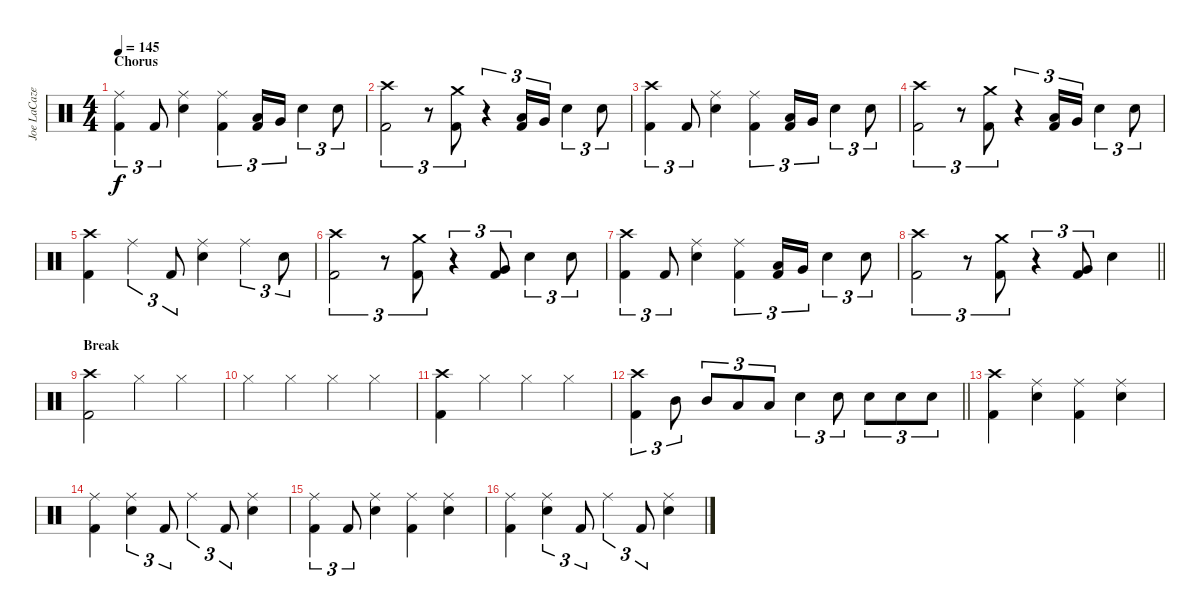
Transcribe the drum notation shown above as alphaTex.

\track ("Joe LaCaze" "Joe LaCaze") {instrument percussion}
\staff {score}
\articulation defaults
\ts (4 4)
\section ("" "Chorus")
\tempo 145
\clef neutral
\ks c
("Ride (middle)" "Kick (hit) 2").4{tu (3 2) dy f} "Kick (hit) 2".8{tu (3 2)} ("Ride (middle)" "Electric Snare (hit)").4 ("Ride (middle)" "Kick (hit) 2").4{tu (3 2)} ("Low Tom (hit)" "Kick (hit) 2").16{tu (3 2)} "Very Low Tom (hit)".16{tu (3 2)} "Electric Snare (hit)".4{tu (3 2)} "Electric Snare (hit)".8{tu (3 2)} |
("Crash high (hit)" "Kick (hit) 2").2{tu (3 2)} r.8{tu (3 2)} ("Crash medium (hit)" "Kick (hit) 2").8{tu (3 2)} r.4{tu (3 2)} ("Low Tom (hit)" "Kick (hit) 2").16{tu (3 2)} "Very Low Tom (hit)".16{tu (3 2)} "Electric Snare (hit)".4{tu (3 2)} "Electric Snare (hit)".8{tu (3 2)} |
("Crash high (hit)" "Kick (hit) 2").4{tu (3 2)} "Kick (hit) 2".8{tu (3 2)} ("Ride (middle)" "Electric Snare (hit)").4 ("Ride (middle)" "Kick (hit) 2").4{tu (3 2)} ("Low Tom (hit)" "Kick (hit) 2").16{tu (3 2)} "Very Low Tom (hit)".16{tu (3 2)} "Electric Snare (hit)".4{tu (3 2)} "Electric Snare (hit)".8{tu (3 2)} |
("Crash high (hit)" "Kick (hit) 2").2{tu (3 2)} r.8{tu (3 2)} ("Crash medium (hit)" "Kick (hit) 2").8{tu (3 2)} r.4{tu (3 2)} ("Low Tom (hit)" "Kick (hit) 2").16{tu (3 2)} "Very Low Tom (hit)".16{tu (3 2)} "Electric Snare (hit)".4{tu (3 2)} "Electric Snare (hit)".8{tu (3 2)} |
("Crash high (hit)" "Kick (hit) 2").4 "Ride (middle)".4{tu (3 2)} "Kick (hit) 2".8{tu (3 2)} ("Ride (middle)" "Electric Snare (hit)").4 "Ride (middle)".4{tu (3 2)} "Electric Snare (hit)".8{tu (3 2)} |
("Crash high (hit)" "Kick (hit) 2").2{tu (3 2)} r.8{tu (3 2)} ("Crash medium (hit)" "Kick (hit) 2").8{tu (3 2)} r.4{tu (3 2)} ("Very Low Tom (hit)" "Kick (hit) 2").8{tu (3 2)} "Electric Snare (hit)".4{tu (3 2)} "Electric Snare (hit)".8{tu (3 2)} |
("Crash high (hit)" "Kick (hit) 2").4{tu (3 2)} "Kick (hit) 2".8{tu (3 2)} ("Ride (middle)" "Electric Snare (hit)").4 ("Ride (middle)" "Kick (hit) 2").4{tu (3 2)} ("Low Tom (hit)" "Kick (hit) 2").16{tu (3 2)} "Very Low Tom (hit)".16{tu (3 2)} "Electric Snare (hit)".4{tu (3 2)} "Electric Snare (hit)".8{tu (3 2)} |
\barLineRight lightlight
("Crash high (hit)" "Kick (hit) 2").2{tu (3 2)} r.8{tu (3 2)} ("Crash medium (hit)" "Kick (hit) 2").8{tu (3 2)} r.4{tu (3 2)} ("Very Low Tom (hit)" "Kick (hit) 2").8{tu (3 2)} "Electric Snare (hit)".4 |
\section ("" "Break")
("Crash high (hit)" "Kick (hit) 2").2 "Hi-Hat (closed)".4 "Hi-Hat (closed)".4 |
"Hi-Hat (closed)".4 "Hi-Hat (closed)".4 "Hi-Hat (closed)".4 "Hi-Hat (closed)".4 |
("Crash high (hit)" "Kick (hit) 2").4 "Hi-Hat (closed)".4 "Hi-Hat (closed)".4 "Hi-Hat (closed)".4 |
\barLineRight lightlight
("Crash high (hit)" "Kick (hit) 2").4{tu (3 2)} "Mid Tom (hit)".8{tu (3 2)} "Mid Tom (hit)".8{tu (3 2)} "Low Tom (hit)".8{tu (3 2)} "Low Tom (hit)".8{tu (3 2)} "Electric Snare (hit)".4{tu (3 2)} "Electric Snare (hit)".8{tu (3 2)} "Electric Snare (hit)".8{tu (3 2)} "Electric Snare (hit)".8{tu (3 2)} "Electric Snare (hit)".8{tu (3 2)} |
\section ("" "")
("Crash high (hit)" "Kick (hit) 2").4 ("Ride (middle)" "Electric Snare (hit)").4 ("Ride (middle)" "Kick (hit) 2").4 ("Ride (middle)" "Electric Snare (hit)").4 |
("Ride (middle)" "Kick (hit) 2").4 ("Ride (middle)" "Electric Snare (hit)").4{tu (3 2)} "Kick (hit) 2".8{tu (3 2)} "Ride (middle)".4{tu (3 2)} "Kick (hit) 2".8{tu (3 2)} ("Ride (middle)" "Electric Snare (hit)").4 |
("Ride (middle)" "Kick (hit) 2").4{tu (3 2)} "Kick (hit) 2".8{tu (3 2)} ("Ride (middle)" "Electric Snare (hit)").4 ("Ride (middle)" "Kick (hit) 2").4 ("Ride (middle)" "Electric Snare (hit)").4 |
("Ride (middle)" "Kick (hit) 2").4 ("Ride (middle)" "Electric Snare (hit)").4{tu (3 2)} "Kick (hit) 2".8{tu (3 2)} "Ride (middle)".4{tu (3 2)} "Kick (hit) 2".8{tu (3 2)} ("Ride (middle)" "Electric Snare (hit)").4
